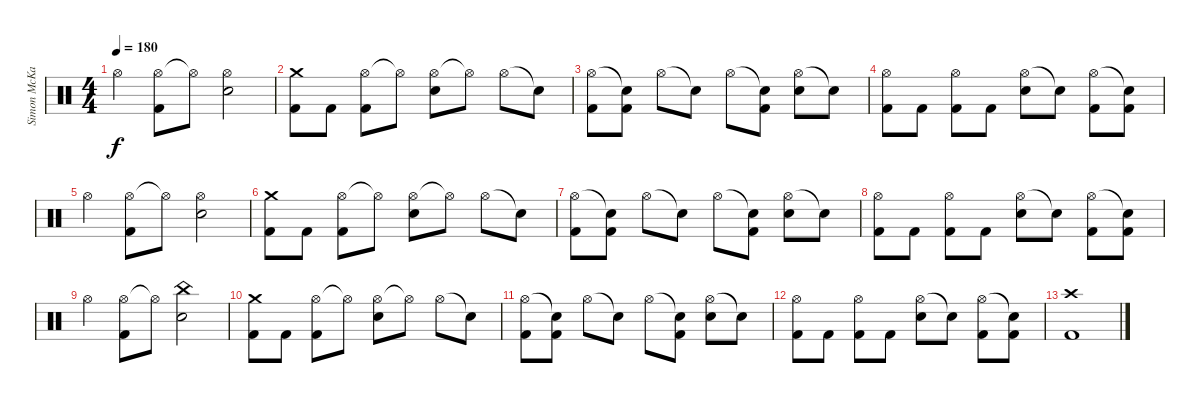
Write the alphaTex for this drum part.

\track ("Simon McKay" "Simon McKa") {instrument percussion}
\staff {score}
\articulation defaults
\ts (4 4)
\tempo 180
\clef neutral
\ks c "Hi-Hat (open)".4{dy f}
("Hi-Hat (open)" "Kick (hit) 2").8 "Hi-Hat (open)"{t}.8 ("Hi-Hat (open)" "Snare (hit) 2").2 |
("Crash medium (hit)" "Kick (hit) 2").8 "Kick (hit) 2".8 ("Hi-Hat (open)" "Kick (hit) 2").8 "Hi-Hat (open)"{t}.8 ("Hi-Hat (open)" "Snare (hit) 2").8 "Hi-Hat (open)"{t}.8 "Hi-Hat (open)".8 "Snare (hit)"{t}.8 |
("Hi-Hat (open)" "Kick (hit) 2").8 ("Snare (hit)"{t} "Kick (hit) 2").8 "Hi-Hat (open)".8 "Snare (hit)"{t}.8 "Hi-Hat (open)".8 ("Snare (hit)"{t} "Kick (hit) 2").8 ("Hi-Hat (open)" "Snare (hit) 2").8 "Snare (hit)"{t}.8 |
("Hi-Hat (open)" "Kick (hit) 2").8 "Kick (hit) 2".8 ("Hi-Hat (open)" "Kick (hit) 2").8 "Kick (hit) 2".8 ("Hi-Hat (open)" "Snare (hit) 2").8 "Snare (hit)"{t}.8 ("Hi-Hat (open)" "Kick (hit) 2").8 ("Snare (hit)"{t} "Kick (hit) 2").8 |
"Hi-Hat (open)".4 ("Hi-Hat (open)" "Kick (hit) 2").8 "Hi-Hat (open)"{t}.8 ("Hi-Hat (open)" "Snare (hit) 2").2 |
("Crash medium (hit)" "Kick (hit) 2").8 "Kick (hit) 2".8 ("Hi-Hat (open)" "Kick (hit) 2").8 "Hi-Hat (open)"{t}.8 ("Hi-Hat (open)" "Snare (hit) 2").8 "Hi-Hat (open)"{t}.8 "Hi-Hat (open)".8 "Snare (hit)"{t}.8 |
("Hi-Hat (open)" "Kick (hit) 2").8 ("Snare (hit)"{t} "Kick (hit) 2").8 "Hi-Hat (open)".8 "Snare (hit)"{t}.8 "Hi-Hat (open)".8 ("Snare (hit)"{t} "Kick (hit) 2").8 ("Hi-Hat (open)" "Snare (hit) 2").8 "Snare (hit)"{t}.8 |
("Hi-Hat (open)" "Kick (hit) 2").8 "Kick (hit) 2".8 ("Hi-Hat (open)" "Kick (hit) 2").8 "Kick (hit) 2".8 ("Hi-Hat (open)" "Snare (hit) 2").8 "Snare (hit)"{t}.8 ("Hi-Hat (open)" "Kick (hit) 2").8 ("Snare (hit)"{t} "Kick (hit) 2").8 |
"Hi-Hat (open)".4 ("Hi-Hat (open)" "Kick (hit) 2").8 "Hi-Hat (open)"{t}.8 ("China (hit)" "Snare (hit) 2").2 |
("Crash medium (hit)" "Kick (hit) 2").8 "Kick (hit) 2".8 ("Hi-Hat (open)" "Kick (hit) 2").8 "Hi-Hat (open)"{t}.8 ("Hi-Hat (open)" "Snare (hit) 2").8 "Hi-Hat (open)"{t}.8 "Hi-Hat (open)".8 "Snare (hit)"{t}.8 |
("Hi-Hat (open)" "Kick (hit) 2").8 ("Snare (hit)"{t} "Kick (hit) 2").8 "Hi-Hat (open)".8 "Snare (hit)"{t}.8 "Hi-Hat (open)".8 ("Snare (hit)"{t} "Kick (hit) 2").8 ("Hi-Hat (open)" "Snare (hit) 2").8 "Snare (hit)"{t}.8 |
("Hi-Hat (open)" "Kick (hit) 2").8 "Kick (hit) 2".8 ("Hi-Hat (open)" "Kick (hit) 2").8 "Kick (hit) 2".8 ("Hi-Hat (open)" "Snare (hit) 2").8 "Snare (hit)"{t}.8 ("Hi-Hat (open)" "Kick (hit) 2").8 ("Snare (hit)"{t} "Kick (hit) 2").8 |
("Crash high (hit)" "Kick (hit) 2").1
